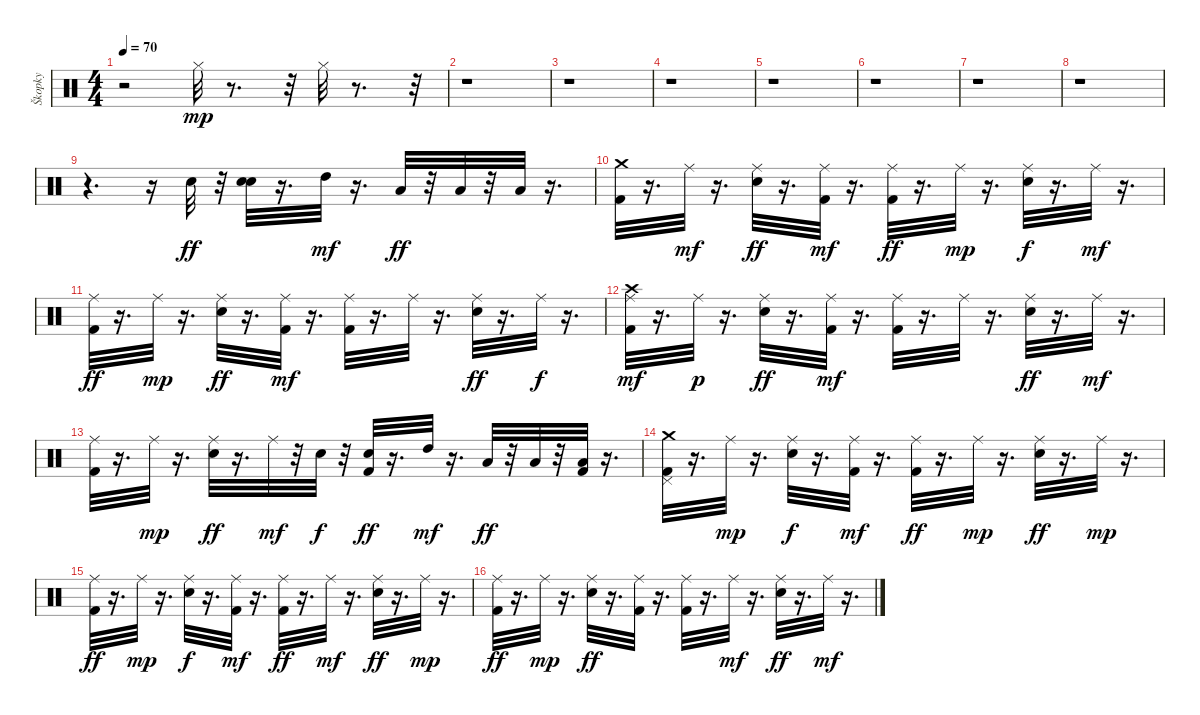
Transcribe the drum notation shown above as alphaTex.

\track ("Škopky" "Škopky") {instrument percussion}
\staff {score}
\articulation defaults
\ts (4 4)
\tempo 70
\clef neutral
\ks c
r.2{dy mp} "Hi-Hat (closed)".32 r.8{d} r.32 "Hi-Hat (closed)".32 r.8{d} r.32 |
r.1 |
r.1 |
r.1 |
r.1 |
r.1 |
r.1 |
r.1 |
r.4{d} r.16 "Snare (hit) 2".32{dy ff} r.32 ("Snare (hit) 2" "Snare (hit) 2").32 r.16{d} "High Tom (hit)".32{dy mf} r.16{d} "Low Tom (hit)".32{dy ff} r.32 "Low Tom (hit)".32 r.32 "Low Floor Tom (hit)".32 r.16{d} |
("Crash medium (hit)" "Kick (hit) 2").32 r.16{d} "Ride (middle)".32{dy mf} r.16{d} ("Snare (hit) 2" "Ride (middle)").32{dy ff} r.16{d} ("Kick (hit) 2" "Ride (middle)").32{dy mf} r.16{d} ("Kick (hit) 2" "Ride (middle)").32{dy ff} r.16{d} "Ride (middle)".32{dy mp} r.16{d} ("Snare (hit) 2" "Ride (middle)").32{dy f} r.16{d} "Ride (middle)".32{dy mf} r.16{d} |
("Kick (hit) 2" "Ride (middle)").32{dy ff} r.16{d} "Ride (middle)".32{dy mp} r.16{d} ("Snare (hit) 2" "Ride (middle)").32{dy ff} r.16{d} ("Kick (hit) 2" "Ride (middle)").32{dy mf} r.16{d} ("Kick (hit) 2" "Ride (middle)").32 r.16{d} "Ride (middle)".32 r.16{d} ("Snare (hit) 2" "Ride (middle)").32{dy ff} r.16{d} "Ride (middle)".32{dy f} r.16{d} |
("Kick (hit) 2" "Ride (middle)" "Crash high (hit)").32{dy mf} r.16{d} "Ride (middle)".32{dy p} r.16{d} ("Snare (hit) 2" "Ride (middle)").32{dy ff} r.16{d} ("Kick (hit) 2" "Ride (middle)").32{dy mf} r.16{d} ("Kick (hit) 2" "Ride (middle)").32 r.16{d} "Ride (middle)".32 r.16{d} ("Snare (hit) 2" "Ride (middle)").32{dy ff} r.16{d} "Ride (middle)".32{dy mf} r.16{d} |
("Kick (hit) 2" "Ride (middle)").32 r.16{d} "Ride (middle)".32{dy mp} r.16{d} ("Snare (hit) 2" "Ride (middle)").32{dy ff} r.16{d} "Ride (middle)".32{dy mf} r.32 "Snare (hit) 2".32{dy f} r.32 ("Kick (hit) 2" "Snare (hit) 2").32{dy ff} r.16{d} "High Tom (hit)".32{dy mf} r.16{d} "Low Tom (hit)".32{dy ff} r.32 "Low Tom (hit)".32 r.32 ("Kick (hit) 2" "Low Floor Tom (hit)").32 r.16{d} |
("Pedal Hi-Hat (hit)" "Crash medium (hit)" "Kick (hit) 2").32 r.16{d} "Ride (middle)".32{dy mp} r.16{d} ("Snare (hit) 2" "Ride (middle)").32{dy f} r.16{d} ("Kick (hit) 2" "Ride (middle)").32{dy mf} r.16{d} ("Ride (middle)" "Kick (hit) 2").32{dy ff} r.16{d} "Ride (middle)".32{dy mp} r.16{d} ("Snare (hit) 2" "Ride (middle)").32{dy ff} r.16{d} "Ride (middle)".32{dy mp} r.16{d} |
("Kick (hit) 2" "Ride (middle)").32{dy ff} r.16{d} "Ride (middle)".32{dy mp} r.16{d} ("Snare (hit) 2" "Ride (middle)").32{dy f} r.16{d} ("Kick (hit) 2" "Ride (middle)").32{dy mf} r.16{d} ("Kick (hit) 2" "Ride (middle)").32{dy ff} r.16{d} "Ride (middle)".32{dy mf} r.16{d} ("Snare (hit) 2" "Ride (middle)").32{dy ff} r.16{d} "Ride (middle)".32{dy mp} r.16{d} |
("Kick (hit) 2" "Ride (middle)").32{dy ff} r.16{d} "Ride (middle)".32{dy mp} r.16{d} ("Snare (hit) 2" "Ride (middle)").32{dy ff} r.16{d} ("Kick (hit) 2" "Ride (middle)").32 r.16{d} ("Kick (hit) 2" "Ride (middle)").32 r.16{d} "Ride (middle)".32{dy mf} r.16{d} ("Snare (hit) 2" "Ride (middle)").32{dy ff} r.16{d} "Ride (middle)".32{dy mf} r.16{d}
